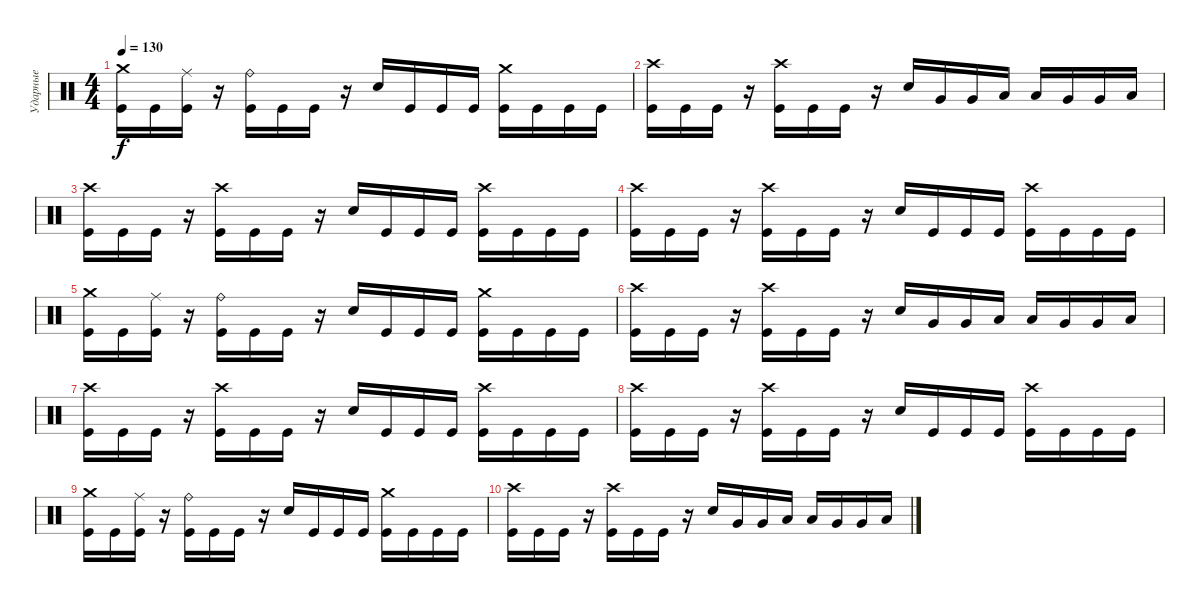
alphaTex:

\track ("Ударные" "Ударные") {instrument percussion}
\staff {score}
\articulation defaults
\ts (4 4)
\tempo 130
\clef neutral
\ks c
("Crash medium (hit)" "Kick (hit)").16{dy f} "Kick (hit)".16 ("Ride (middle)" "Kick (hit)").16 r.16 ("Ride (bell)" "Kick (hit)").16 "Kick (hit)".16 "Kick (hit)".16 r.16 "Electric Snare (hit)".16 "Kick (hit)".16 "Kick (hit)".16 "Kick (hit)".16 ("Crash medium (hit)" "Kick (hit)").16 "Kick (hit)".16 "Kick (hit)".16 "Kick (hit)".16 |
("Crash high (hit)" "Kick (hit)").16 "Kick (hit)".16 "Kick (hit)".16 r.16 ("Crash high (hit)" "Kick (hit)").16 "Kick (hit)".16 "Kick (hit)".16 r.16 "Electric Snare (hit)".16 "Very Low Tom (hit)".16 "Very Low Tom (hit)".16 "Low Tom (hit)".16 "Low Tom (hit)".16 "Very Low Tom (hit)".16 "Very Low Tom (hit)".16 "Low Floor Tom (hit)".16 |
("Crash high (hit)" "Kick (hit)").16 "Kick (hit)".16 "Kick (hit)".16 r.16 ("Crash high (hit)" "Kick (hit)").16 "Kick (hit)".16 "Kick (hit)".16 r.16 "Electric Snare (hit)".16 "Kick (hit)".16 "Kick (hit)".16 "Kick (hit)".16 ("Crash high (hit)" "Kick (hit)").16 "Kick (hit)".16 "Kick (hit)".16 "Kick (hit)".16 |
("Crash high (hit)" "Kick (hit)").16 "Kick (hit)".16 "Kick (hit)".16 r.16 ("Crash high (hit)" "Kick (hit)").16 "Kick (hit)".16 "Kick (hit)".16 r.16 "Electric Snare (hit)".16 "Kick (hit)".16 "Kick (hit)".16 "Kick (hit)".16 ("Crash high (hit)" "Kick (hit)").16 "Kick (hit)".16 "Kick (hit)".16 "Kick (hit)".16 |
("Crash medium (hit)" "Kick (hit)").16 "Kick (hit)".16 ("Ride (middle)" "Kick (hit)").16 r.16 ("Ride (bell)" "Kick (hit)").16 "Kick (hit)".16 "Kick (hit)".16 r.16 "Electric Snare (hit)".16 "Kick (hit)".16 "Kick (hit)".16 "Kick (hit)".16 ("Crash medium (hit)" "Kick (hit)").16 "Kick (hit)".16 "Kick (hit)".16 "Kick (hit)".16 |
("Crash high (hit)" "Kick (hit)").16 "Kick (hit)".16 "Kick (hit)".16 r.16 ("Crash high (hit)" "Kick (hit)").16 "Kick (hit)".16 "Kick (hit)".16 r.16 "Electric Snare (hit)".16 "Very Low Tom (hit)".16 "Very Low Tom (hit)".16 "Low Tom (hit)".16 "Low Tom (hit)".16 "Very Low Tom (hit)".16 "Very Low Tom (hit)".16 "Low Floor Tom (hit)".16 |
("Crash high (hit)" "Kick (hit)").16 "Kick (hit)".16 "Kick (hit)".16 r.16 ("Crash high (hit)" "Kick (hit)").16 "Kick (hit)".16 "Kick (hit)".16 r.16 "Electric Snare (hit)".16 "Kick (hit)".16 "Kick (hit)".16 "Kick (hit)".16 ("Crash high (hit)" "Kick (hit)").16 "Kick (hit)".16 "Kick (hit)".16 "Kick (hit)".16 |
("Crash high (hit)" "Kick (hit)").16 "Kick (hit)".16 "Kick (hit)".16 r.16 ("Crash high (hit)" "Kick (hit)").16 "Kick (hit)".16 "Kick (hit)".16 r.16 "Electric Snare (hit)".16 "Kick (hit)".16 "Kick (hit)".16 "Kick (hit)".16 ("Crash high (hit)" "Kick (hit)").16 "Kick (hit)".16 "Kick (hit)".16 "Kick (hit)".16 |
("Crash medium (hit)" "Kick (hit)").16 "Kick (hit)".16 ("Ride (middle)" "Kick (hit)").16 r.16 ("Ride (bell)" "Kick (hit)").16 "Kick (hit)".16 "Kick (hit)".16 r.16 "Electric Snare (hit)".16 "Kick (hit)".16 "Kick (hit)".16 "Kick (hit)".16 ("Crash medium (hit)" "Kick (hit)").16 "Kick (hit)".16 "Kick (hit)".16 "Kick (hit)".16 |
("Crash high (hit)" "Kick (hit)").16 "Kick (hit)".16 "Kick (hit)".16 r.16 ("Crash high (hit)" "Kick (hit)").16 "Kick (hit)".16 "Kick (hit)".16 r.16 "Electric Snare (hit)".16 "Very Low Tom (hit)".16 "Very Low Tom (hit)".16 "Low Tom (hit)".16 "Low Tom (hit)".16 "Very Low Tom (hit)".16 "Very Low Tom (hit)".16 "Low Floor Tom (hit)".16
